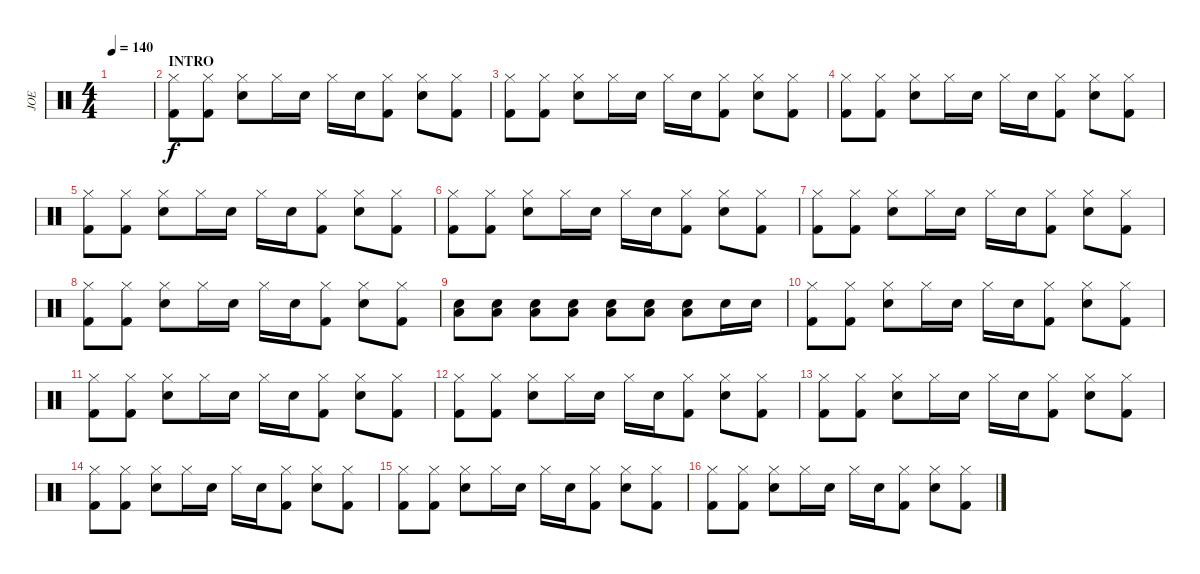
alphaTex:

\track ("JOE" "JOE") {instrument percussion}
\staff {score}
\articulation defaults
\ts (4 4)
\tempo 140
\clef neutral
\ks c
|
\section ("" "INTRO")
("Hi-Hat (closed)" "Kick (hit) 2").8 ("Hi-Hat (closed)" "Kick (hit) 2").8 ("Hi-Hat (closed)" "Snare (hit) 2").8 "Hi-Hat (closed)".16 "Snare (hit) 2".16 "Hi-Hat (closed)".16 "Snare (hit) 2".16 ("Hi-Hat (closed)" "Kick (hit) 2").8 ("Hi-Hat (closed)" "Snare (hit) 2").8 ("Hi-Hat (closed)" "Kick (hit) 2").8 |
("Hi-Hat (closed)" "Kick (hit) 2").8 ("Hi-Hat (closed)" "Kick (hit) 2").8 ("Hi-Hat (closed)" "Snare (hit) 2").8 "Hi-Hat (closed)".16 "Snare (hit) 2".16 "Hi-Hat (closed)".16 "Snare (hit) 2".16 ("Hi-Hat (closed)" "Kick (hit) 2").8 ("Hi-Hat (closed)" "Snare (hit) 2").8 ("Hi-Hat (closed)" "Kick (hit) 2").8 |
("Hi-Hat (closed)" "Kick (hit) 2").8 ("Hi-Hat (closed)" "Kick (hit) 2").8 ("Hi-Hat (closed)" "Snare (hit) 2").8 "Hi-Hat (closed)".16 "Snare (hit) 2".16 "Hi-Hat (closed)".16 "Snare (hit) 2".16 ("Hi-Hat (closed)" "Kick (hit) 2").8 ("Hi-Hat (closed)" "Snare (hit) 2").8 ("Hi-Hat (closed)" "Kick (hit) 2").8 |
("Hi-Hat (closed)" "Kick (hit) 2").8 ("Hi-Hat (closed)" "Kick (hit) 2").8 ("Hi-Hat (closed)" "Snare (hit) 2").8 "Hi-Hat (closed)".16 "Snare (hit) 2".16 "Hi-Hat (closed)".16 "Snare (hit) 2".16 ("Hi-Hat (closed)" "Kick (hit) 2").8 ("Hi-Hat (closed)" "Snare (hit) 2").8 ("Hi-Hat (closed)" "Kick (hit) 2").8 |
("Hi-Hat (closed)" "Kick (hit) 2").8 ("Hi-Hat (closed)" "Kick (hit) 2").8 ("Hi-Hat (closed)" "Snare (hit) 2").8 "Hi-Hat (closed)".16 "Snare (hit) 2".16 "Hi-Hat (closed)".16 "Snare (hit) 2".16 ("Hi-Hat (closed)" "Kick (hit) 2").8 ("Hi-Hat (closed)" "Snare (hit) 2").8 ("Hi-Hat (closed)" "Kick (hit) 2").8 |
("Hi-Hat (closed)" "Kick (hit) 2").8 ("Hi-Hat (closed)" "Kick (hit) 2").8 ("Hi-Hat (closed)" "Snare (hit) 2").8 "Hi-Hat (closed)".16 "Snare (hit) 2".16 "Hi-Hat (closed)".16 "Snare (hit) 2".16 ("Hi-Hat (closed)" "Kick (hit) 2").8 ("Hi-Hat (closed)" "Snare (hit) 2").8 ("Hi-Hat (closed)" "Kick (hit) 2").8 |
("Hi-Hat (closed)" "Kick (hit) 2").8 ("Hi-Hat (closed)" "Kick (hit) 2").8 ("Hi-Hat (closed)" "Snare (hit) 2").8 "Hi-Hat (closed)".16 "Snare (hit) 2".16 "Hi-Hat (closed)".16 "Snare (hit) 2".16 ("Hi-Hat (closed)" "Kick (hit) 2").8 ("Hi-Hat (closed)" "Snare (hit) 2").8 ("Hi-Hat (closed)" "Kick (hit) 2").8 |
("Snare (hit) 2" "Low Floor Tom (hit)").8 ("Snare (hit) 2" "Low Floor Tom (hit)").8 ("Snare (hit) 2" "Low Floor Tom (hit)").8 ("Snare (hit) 2" "Low Floor Tom (hit)").8 ("Snare (hit) 2" "Low Floor Tom (hit)").8 ("Snare (hit) 2" "Low Floor Tom (hit)").8 ("Snare (hit) 2" "Low Floor Tom (hit)").8 "Snare (hit) 2".16 "Snare (hit) 2".16 |
("Hi-Hat (closed)" "Kick (hit) 2").8 ("Hi-Hat (closed)" "Kick (hit) 2").8 ("Hi-Hat (closed)" "Snare (hit) 2").8 "Hi-Hat (closed)".16 "Snare (hit) 2".16 "Hi-Hat (closed)".16 "Snare (hit) 2".16 ("Hi-Hat (closed)" "Kick (hit) 2").8 ("Hi-Hat (closed)" "Snare (hit) 2").8 ("Hi-Hat (closed)" "Kick (hit) 2").8 |
("Hi-Hat (closed)" "Kick (hit) 2").8 ("Hi-Hat (closed)" "Kick (hit) 2").8 ("Hi-Hat (closed)" "Snare (hit) 2").8 "Hi-Hat (closed)".16 "Snare (hit) 2".16 "Hi-Hat (closed)".16 "Snare (hit) 2".16 ("Hi-Hat (closed)" "Kick (hit) 2").8 ("Hi-Hat (closed)" "Snare (hit) 2").8 ("Hi-Hat (closed)" "Kick (hit) 2").8 |
("Hi-Hat (closed)" "Kick (hit) 2").8 ("Hi-Hat (closed)" "Kick (hit) 2").8 ("Hi-Hat (closed)" "Snare (hit) 2").8 "Hi-Hat (closed)".16 "Snare (hit) 2".16 "Hi-Hat (closed)".16 "Snare (hit) 2".16 ("Hi-Hat (closed)" "Kick (hit) 2").8 ("Hi-Hat (closed)" "Snare (hit) 2").8 ("Hi-Hat (closed)" "Kick (hit) 2").8 |
("Hi-Hat (closed)" "Kick (hit) 2").8 ("Hi-Hat (closed)" "Kick (hit) 2").8 ("Hi-Hat (closed)" "Snare (hit) 2").8 "Hi-Hat (closed)".16 "Snare (hit) 2".16 "Hi-Hat (closed)".16 "Snare (hit) 2".16 ("Hi-Hat (closed)" "Kick (hit) 2").8 ("Hi-Hat (closed)" "Snare (hit) 2").8 ("Hi-Hat (closed)" "Kick (hit) 2").8 |
("Hi-Hat (closed)" "Kick (hit) 2").8 ("Hi-Hat (closed)" "Kick (hit) 2").8 ("Hi-Hat (closed)" "Snare (hit) 2").8 "Hi-Hat (closed)".16 "Snare (hit) 2".16 "Hi-Hat (closed)".16 "Snare (hit) 2".16 ("Hi-Hat (closed)" "Kick (hit) 2").8 ("Hi-Hat (closed)" "Snare (hit) 2").8 ("Hi-Hat (closed)" "Kick (hit) 2").8 |
("Hi-Hat (closed)" "Kick (hit) 2").8 ("Hi-Hat (closed)" "Kick (hit) 2").8 ("Hi-Hat (closed)" "Snare (hit) 2").8 "Hi-Hat (closed)".16 "Snare (hit) 2".16 "Hi-Hat (closed)".16 "Snare (hit) 2".16 ("Hi-Hat (closed)" "Kick (hit) 2").8 ("Hi-Hat (closed)" "Snare (hit) 2").8 ("Hi-Hat (closed)" "Kick (hit) 2").8 |
("Hi-Hat (closed)" "Kick (hit) 2").8 ("Hi-Hat (closed)" "Kick (hit) 2").8 ("Hi-Hat (closed)" "Snare (hit) 2").8 "Hi-Hat (closed)".16 "Snare (hit) 2".16 "Hi-Hat (closed)".16 "Snare (hit) 2".16 ("Hi-Hat (closed)" "Kick (hit) 2").8 ("Hi-Hat (closed)" "Snare (hit) 2").8 ("Hi-Hat (closed)" "Kick (hit) 2").8
